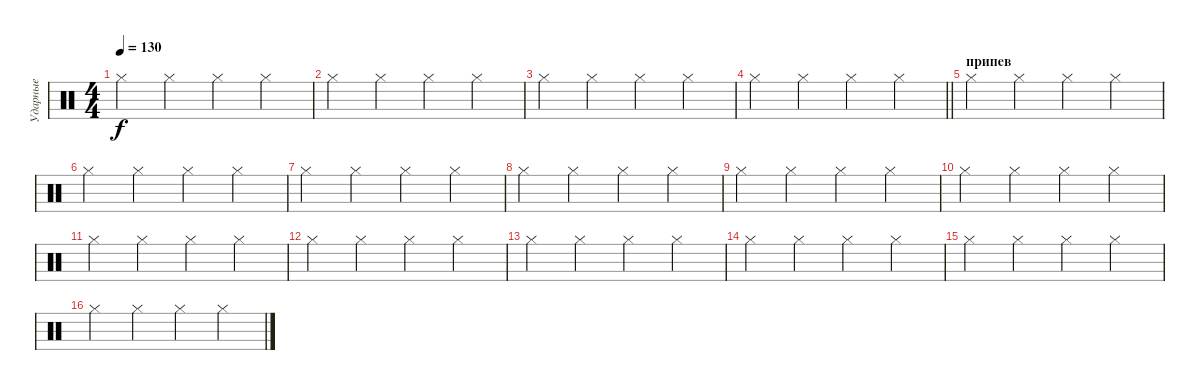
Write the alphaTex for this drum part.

\track ("Ударные" "Ударные") {instrument percussion}
\staff {score}
\articulation defaults
\ts (4 4)
\tempo 130
\clef neutral
\ks c "Hi-Hat (closed)".2{dy f} "Hi-Hat (closed)".2 "Hi-Hat (closed)".2 "Hi-Hat (closed)".2
|
"Hi-Hat (closed)".2 "Hi-Hat (closed)".2 "Hi-Hat (closed)".2 "Hi-Hat (closed)".2 |
"Hi-Hat (closed)".2 "Hi-Hat (closed)".2 "Hi-Hat (closed)".2 "Hi-Hat (closed)".2 |
\barLineRight lightlight "Hi-Hat (closed)".2 "Hi-Hat (closed)".2 "Hi-Hat (closed)".2 "Hi-Hat (closed)".2
|
\section ("" "припев")
"Hi-Hat (closed)".2 "Hi-Hat (closed)".2 "Hi-Hat (closed)".2 "Hi-Hat (closed)".2 |
"Hi-Hat (closed)".2 "Hi-Hat (closed)".2 "Hi-Hat (closed)".2 "Hi-Hat (closed)".2 |
"Hi-Hat (closed)".2 "Hi-Hat (closed)".2 "Hi-Hat (closed)".2 "Hi-Hat (closed)".2 |
"Hi-Hat (closed)".2 "Hi-Hat (closed)".2 "Hi-Hat (closed)".2 "Hi-Hat (closed)".2 |
"Hi-Hat (closed)".2 "Hi-Hat (closed)".2 "Hi-Hat (closed)".2 "Hi-Hat (closed)".2 |
"Hi-Hat (closed)".2 "Hi-Hat (closed)".2 "Hi-Hat (closed)".2 "Hi-Hat (closed)".2 |
"Hi-Hat (closed)".2 "Hi-Hat (closed)".2 "Hi-Hat (closed)".2 "Hi-Hat (closed)".2 |
"Hi-Hat (closed)".2 "Hi-Hat (closed)".2 "Hi-Hat (closed)".2 "Hi-Hat (closed)".2 |
"Hi-Hat (closed)".2 "Hi-Hat (closed)".2 "Hi-Hat (closed)".2 "Hi-Hat (closed)".2 |
"Hi-Hat (closed)".2 "Hi-Hat (closed)".2 "Hi-Hat (closed)".2 "Hi-Hat (closed)".2 |
"Hi-Hat (closed)".2 "Hi-Hat (closed)".2 "Hi-Hat (closed)".2 "Hi-Hat (closed)".2 |
"Hi-Hat (closed)".2 "Hi-Hat (closed)".2 "Hi-Hat (closed)".2 "Hi-Hat (closed)".2
